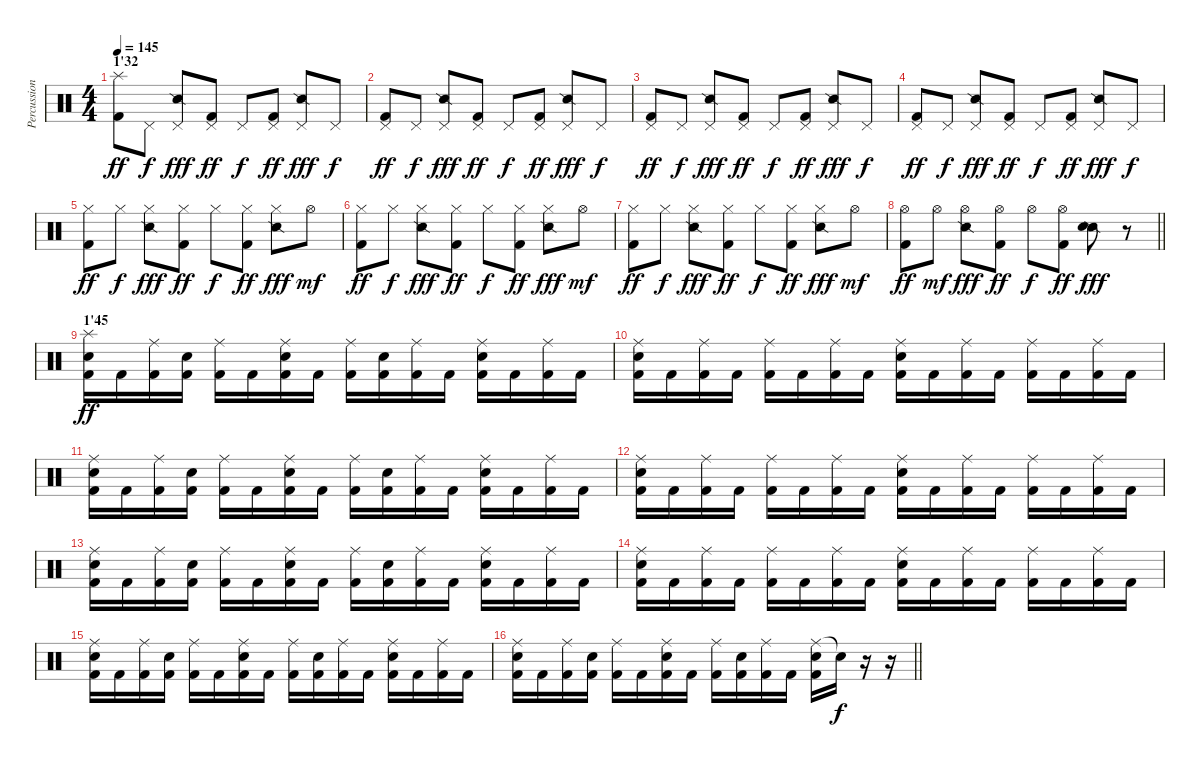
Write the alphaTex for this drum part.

\track ("Percussions" "Percussion") {instrument percussion}
\staff {score}
\articulation defaults
\ts (4 4)
\section ("" "1'32")
\tempo 145
\clef neutral
\ks c
("Splash (hit)" "Kick (hit) 2").8{dy ff} "Pedal Hi-Hat (hit)".8{dy f} ("Pedal Hi-Hat (hit)" "Snare (side stick) 2").8{dy fff} ("Pedal Hi-Hat (hit)" "Kick (hit) 2").8{dy ff} "Pedal Hi-Hat (hit)".8{dy f} ("Pedal Hi-Hat (hit)" "Kick (hit) 2").8{dy ff} ("Pedal Hi-Hat (hit)" "Snare (side stick) 2").8{dy fff} "Pedal Hi-Hat (hit)".8{dy f} |
("Pedal Hi-Hat (hit)" "Kick (hit) 2").8{dy ff} "Pedal Hi-Hat (hit)".8{dy f} ("Pedal Hi-Hat (hit)" "Snare (side stick) 2").8{dy fff} ("Pedal Hi-Hat (hit)" "Kick (hit) 2").8{dy ff} "Pedal Hi-Hat (hit)".8{dy f} ("Pedal Hi-Hat (hit)" "Kick (hit) 2").8{dy ff} ("Pedal Hi-Hat (hit)" "Snare (side stick) 2").8{dy fff} "Pedal Hi-Hat (hit)".8{dy f} |
("Pedal Hi-Hat (hit)" "Kick (hit) 2").8{dy ff} "Pedal Hi-Hat (hit)".8{dy f} ("Pedal Hi-Hat (hit)" "Snare (side stick) 2").8{dy fff} ("Pedal Hi-Hat (hit)" "Kick (hit) 2").8{dy ff} "Pedal Hi-Hat (hit)".8{dy f} ("Pedal Hi-Hat (hit)" "Kick (hit) 2").8{dy ff} ("Pedal Hi-Hat (hit)" "Snare (side stick) 2").8{dy fff} "Pedal Hi-Hat (hit)".8{dy f} |
("Pedal Hi-Hat (hit)" "Kick (hit) 2").8{dy ff} "Pedal Hi-Hat (hit)".8{dy f} ("Pedal Hi-Hat (hit)" "Snare (side stick) 2").8{dy fff} ("Pedal Hi-Hat (hit)" "Kick (hit) 2").8{dy ff} "Pedal Hi-Hat (hit)".8{dy f} ("Pedal Hi-Hat (hit)" "Kick (hit) 2").8{dy ff} ("Pedal Hi-Hat (hit)" "Snare (side stick) 2").8{dy fff} "Pedal Hi-Hat (hit)".8{dy f} |
("Hi-Hat (closed)" "Kick (hit) 2").8{dy ff} "Hi-Hat (closed)".8{dy f} ("Hi-Hat (closed)" "Snare (side stick) 2").8{dy fff} ("Hi-Hat (closed)" "Kick (hit) 2").8{dy ff} "Hi-Hat (closed)".8{dy f} ("Hi-Hat (closed)" "Kick (hit) 2").8{dy ff} ("Hi-Hat (closed)" "Snare (side stick) 2").8{dy fff} "Hi-Hat (open)".8{dy mf} |
("Hi-Hat (closed)" "Kick (hit) 2").8{dy ff} "Hi-Hat (closed)".8{dy f} ("Hi-Hat (closed)" "Snare (side stick) 2").8{dy fff} ("Hi-Hat (closed)" "Kick (hit) 2").8{dy ff} "Hi-Hat (closed)".8{dy f} ("Hi-Hat (closed)" "Kick (hit) 2").8{dy ff} ("Hi-Hat (closed)" "Snare (side stick) 2").8{dy fff} "Hi-Hat (open)".8{dy mf} |
("Hi-Hat (closed)" "Kick (hit) 2").8{dy ff} "Hi-Hat (closed)".8{dy f} ("Hi-Hat (closed)" "Snare (side stick) 2").8{dy fff} ("Hi-Hat (closed)" "Kick (hit) 2").8{dy ff} "Hi-Hat (closed)".8{dy f} ("Hi-Hat (closed)" "Kick (hit) 2").8{dy ff} ("Hi-Hat (closed)" "Snare (side stick) 2").8{dy fff} "Hi-Hat (open)".8{dy mf} |
\barLineRight lightlight
("Hi-Hat (open)" "Kick (hit) 2").8{dy ff} "Hi-Hat (open)".8{dy mf} ("Hi-Hat (open)" "Snare (side stick) 2").8{dy fff} ("Hi-Hat (open)" "Kick (hit) 2").8{dy ff} "Hi-Hat (open)".8{dy f} ("Hi-Hat (open)" "Kick (hit) 2").8{dy ff} ("Snare (side stick) 2" "Snare (hit) 2").8{dy fff} r.8 |
\section ("" "1'45")
("Splash (hit)" "Snare (hit) 2" "Kick (hit) 2").16{dy ff} "Kick (hit) 2".16 ("Ride (middle)" "Kick (hit) 2").16 ("Snare (hit) 2" "Kick (hit) 2").16 ("Ride (middle)" "Kick (hit) 2").16 "Kick (hit) 2".16 ("Ride (middle)" "Snare (hit) 2" "Kick (hit) 2").16 "Kick (hit) 2".16 ("Ride (middle)" "Kick (hit) 2").16 ("Snare (hit) 2" "Kick (hit) 2").16 ("Ride (middle)" "Kick (hit) 2").16 "Kick (hit) 2".16 ("Ride (middle)" "Snare (hit) 2" "Kick (hit) 2").16 "Kick (hit) 2".16 ("Ride (middle)" "Kick (hit) 2").16 "Kick (hit) 2".16 |
("Ride (middle)" "Snare (hit) 2" "Kick (hit) 2").16 "Kick (hit) 2".16 ("Ride (middle)" "Kick (hit) 2").16 "Kick (hit) 2".16 ("Ride (middle)" "Kick (hit) 2").16 "Kick (hit) 2".16 ("Ride (middle)" "Kick (hit) 2").16 "Kick (hit) 2".16 ("Ride (middle)" "Snare (hit) 2" "Kick (hit) 2").16 "Kick (hit) 2".16 ("Ride (middle)" "Kick (hit) 2").16 "Kick (hit) 2".16 ("Ride (middle)" "Kick (hit) 2").16 "Kick (hit) 2".16 ("Ride (middle)" "Kick (hit) 2").16 "Kick (hit) 2".16 |
("Ride (middle)" "Snare (hit) 2" "Kick (hit) 2").16 "Kick (hit) 2".16 ("Ride (middle)" "Kick (hit) 2").16 ("Snare (hit) 2" "Kick (hit) 2").16 ("Ride (middle)" "Kick (hit) 2").16 "Kick (hit) 2".16 ("Ride (middle)" "Snare (hit) 2" "Kick (hit) 2").16 "Kick (hit) 2".16 ("Ride (middle)" "Kick (hit) 2").16 ("Snare (hit) 2" "Kick (hit) 2").16 ("Ride (middle)" "Kick (hit) 2").16 "Kick (hit) 2".16 ("Ride (middle)" "Snare (hit) 2" "Kick (hit) 2").16 "Kick (hit) 2".16 ("Ride (middle)" "Kick (hit) 2").16 "Kick (hit) 2".16 |
("Ride (middle)" "Snare (hit) 2" "Kick (hit) 2").16 "Kick (hit) 2".16 ("Ride (middle)" "Kick (hit) 2").16 "Kick (hit) 2".16 ("Ride (middle)" "Kick (hit) 2").16 "Kick (hit) 2".16 ("Ride (middle)" "Kick (hit) 2").16 "Kick (hit) 2".16 ("Ride (middle)" "Snare (hit) 2" "Kick (hit) 2").16 "Kick (hit) 2".16 ("Ride (middle)" "Kick (hit) 2").16 "Kick (hit) 2".16 ("Ride (middle)" "Kick (hit) 2").16 "Kick (hit) 2".16 ("Ride (middle)" "Kick (hit) 2").16 "Kick (hit) 2".16 |
("Ride (middle)" "Snare (hit) 2" "Kick (hit) 2").16 "Kick (hit) 2".16 ("Ride (middle)" "Kick (hit) 2").16 ("Snare (hit) 2" "Kick (hit) 2").16 ("Ride (middle)" "Kick (hit) 2").16 "Kick (hit) 2".16 ("Ride (middle)" "Snare (hit) 2" "Kick (hit) 2").16 "Kick (hit) 2".16 ("Ride (middle)" "Kick (hit) 2").16 ("Snare (hit) 2" "Kick (hit) 2").16 ("Ride (middle)" "Kick (hit) 2").16 "Kick (hit) 2".16 ("Ride (middle)" "Snare (hit) 2" "Kick (hit) 2").16 "Kick (hit) 2".16 ("Ride (middle)" "Kick (hit) 2").16 "Kick (hit) 2".16 |
("Ride (middle)" "Snare (hit) 2" "Kick (hit) 2").16 "Kick (hit) 2".16 ("Ride (middle)" "Kick (hit) 2").16 "Kick (hit) 2".16 ("Ride (middle)" "Kick (hit) 2").16 "Kick (hit) 2".16 ("Ride (middle)" "Kick (hit) 2").16 "Kick (hit) 2".16 ("Ride (middle)" "Snare (hit) 2" "Kick (hit) 2").16 "Kick (hit) 2".16 ("Ride (middle)" "Kick (hit) 2").16 "Kick (hit) 2".16 ("Ride (middle)" "Kick (hit) 2").16 "Kick (hit) 2".16 ("Ride (middle)" "Kick (hit) 2").16 "Kick (hit) 2".16 |
("Ride (middle)" "Snare (hit) 2" "Kick (hit) 2").16 "Kick (hit) 2".16 ("Ride (middle)" "Kick (hit) 2").16 ("Snare (hit) 2" "Kick (hit) 2").16 ("Ride (middle)" "Kick (hit) 2").16 "Kick (hit) 2".16 ("Ride (middle)" "Snare (hit) 2" "Kick (hit) 2").16 "Kick (hit) 2".16 ("Ride (middle)" "Kick (hit) 2").16 ("Snare (hit) 2" "Kick (hit) 2").16 ("Ride (middle)" "Kick (hit) 2").16 "Kick (hit) 2".16 ("Ride (middle)" "Snare (hit) 2" "Kick (hit) 2").16 "Kick (hit) 2".16 ("Ride (middle)" "Kick (hit) 2").16 "Kick (hit) 2".16 |
\barLineRight lightlight
("Ride (middle)" "Snare (hit) 2" "Kick (hit) 2").16 "Kick (hit) 2".16 ("Ride (middle)" "Kick (hit) 2").16 ("Snare (hit) 2" "Kick (hit) 2").16 ("Ride (middle)" "Kick (hit) 2").16 "Kick (hit) 2".16 ("Ride (middle)" "Snare (hit) 2" "Kick (hit) 2").16 "Kick (hit) 2".16 ("Ride (middle)" "Kick (hit) 2").16 ("Snare (hit) 2" "Kick (hit) 2").16 ("Ride (middle)" "Kick (hit) 2").16 "Kick (hit) 2".16 ("Ride (middle)" "Snare (hit) 2" "Kick (hit) 2").16 "Snare (hit)"{t}.16{dy f} r.16 r.16
